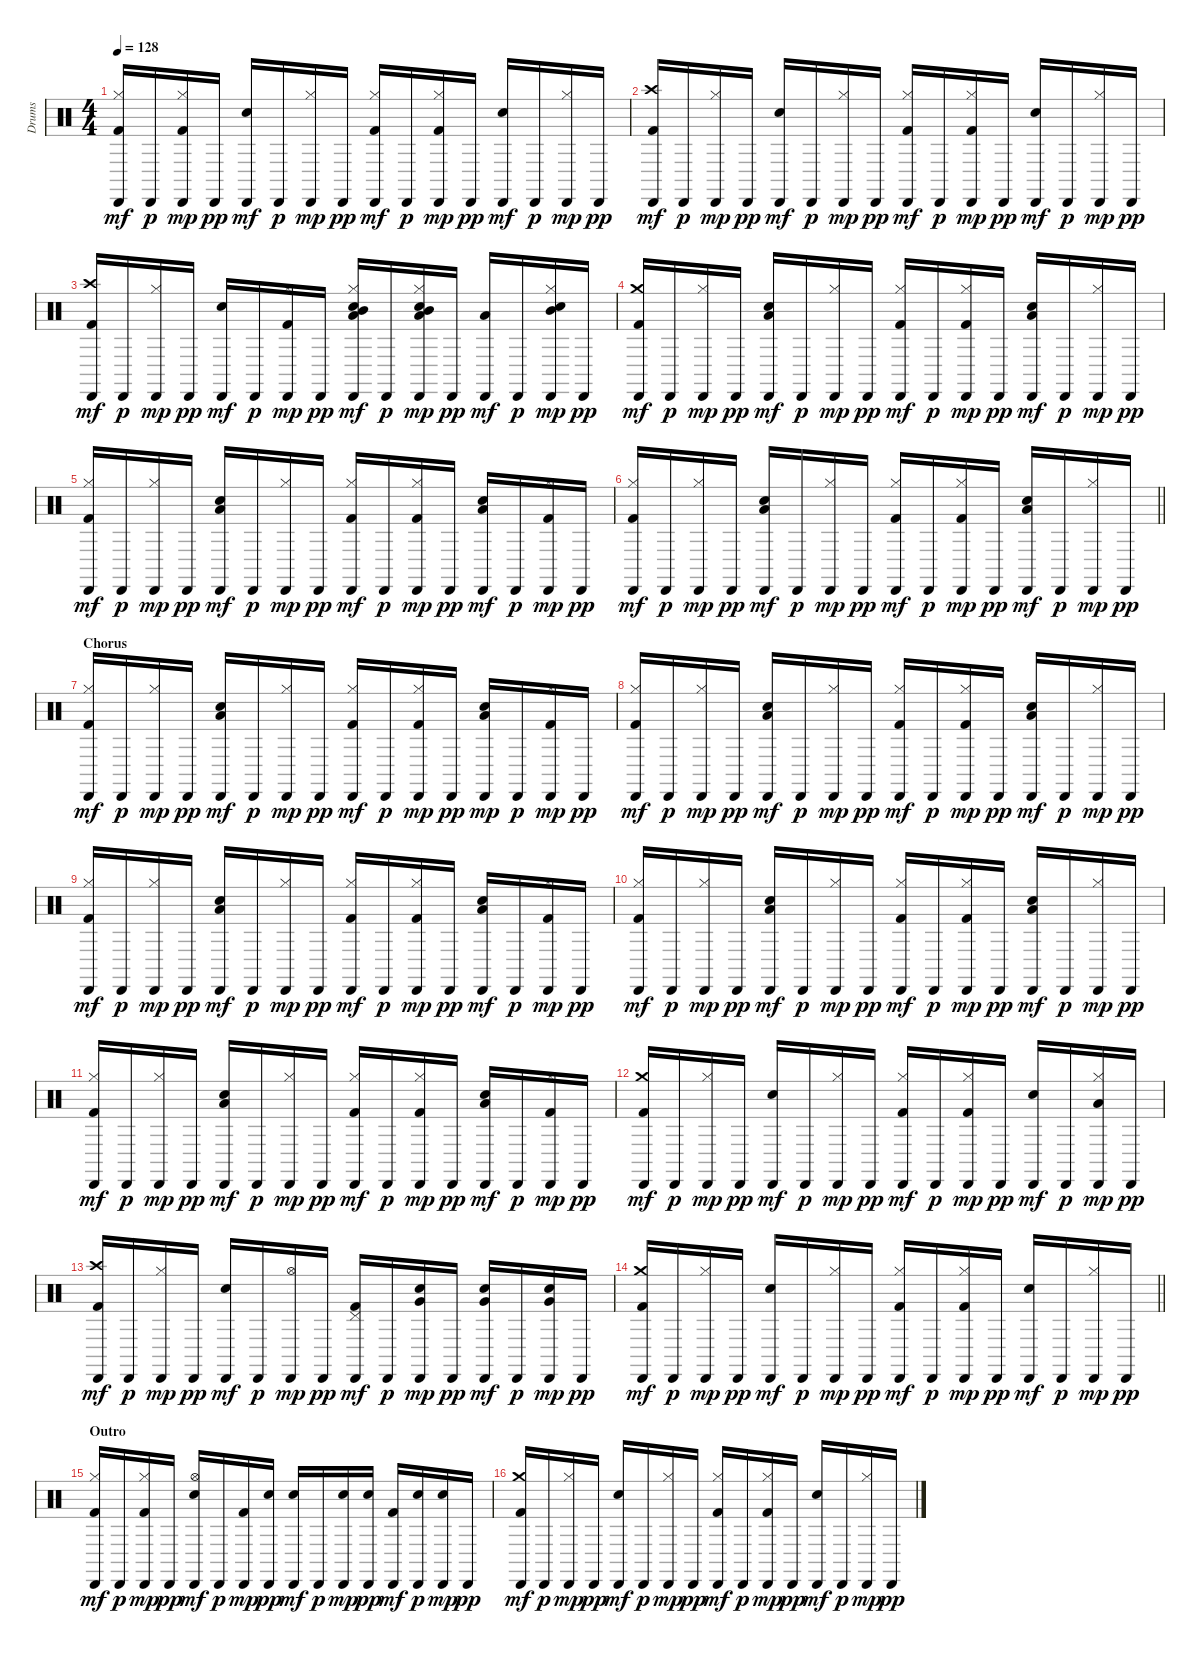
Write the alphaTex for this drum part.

\track ("Drums" "Drums") {instrument percussion}
\staff {score}
\articulation defaults
\ts (4 4)
\tempo 128
\clef neutral
\ks c
("Kick (hit) 2" "Hi-Hat (closed)" "Cabasa (hit)").16{dy mf} "Cabasa (hit)".16{dy p} ("Kick (hit) 2" "Hi-Hat (closed)" "Cabasa (hit)").16{dy mp} "Cabasa (hit)".16{dy pp} ("Electric Snare (hit)" "Cabasa (hit)").16{dy mf} "Cabasa (hit)".16{dy p} ("Hi-Hat (closed)" "Cabasa (hit)").16{dy mp} "Cabasa (hit)".16{dy pp} ("Kick (hit) 2" "Hi-Hat (closed)" "Cabasa (hit)").16{dy mf} "Cabasa (hit)".16{dy p} ("Kick (hit) 2" "Hi-Hat (closed)" "Cabasa (hit)").16{dy mp} "Cabasa (hit)".16{dy pp} ("Electric Snare (hit)" "Cabasa (hit)").16{dy mf} "Cabasa (hit)".16{dy p} ("Hi-Hat (closed)" "Cabasa (hit)").16{dy mp} "Cabasa (hit)".16{dy pp} |
("Kick (hit) 2" "Crash high (hit)" "Cabasa (hit)").16{dy mf} "Cabasa (hit)".16{dy p} ("Hi-Hat (closed)" "Cabasa (hit)").16{dy mp} "Cabasa (hit)".16{dy pp} ("Electric Snare (hit)" "Cabasa (hit)").16{dy mf} "Cabasa (hit)".16{dy p} ("Hi-Hat (closed)" "Cabasa (hit)").16{dy mp} "Cabasa (hit)".16{dy pp} ("Kick (hit) 2" "Hi-Hat (closed)" "Cabasa (hit)").16{dy mf} "Cabasa (hit)".16{dy p} ("Kick (hit) 2" "Hi-Hat (closed)" "Cabasa (hit)").16{dy mp} "Cabasa (hit)".16{dy pp} ("Electric Snare (hit)" "Cabasa (hit)").16{dy mf} "Cabasa (hit)".16{dy p} ("Hi-Hat (closed)" "Cabasa (hit)").16{dy mp} "Cabasa (hit)".16{dy pp} |
("Kick (hit) 2" "Crash high (hit)" "Cabasa (hit)").16{dy mf} "Cabasa (hit)".16{dy p} ("Hi-Hat (closed)" "Cabasa (hit)").16{dy mp} "Cabasa (hit)".16{dy pp} ("Electric Snare (hit)" "Cabasa (hit)").16{dy mf} "Cabasa (hit)".16{dy p} ("Kick (hit) 2" "Hi-Hat (closed)" "Cabasa (hit)").16{dy mp} "Cabasa (hit)".16{dy pp} ("Electric Snare (hit)" "Hi-Hat (closed)" "Low Tom (hit)" "Mid Tom (hit)" "Cabasa (hit)").16{dy mf} "Cabasa (hit)".16{dy p} ("Electric Snare (hit)" "Hi-Hat (closed)" "Low Tom (hit)" "Mid Tom (hit)" "Cabasa (hit)").16{dy mp} "Cabasa (hit)".16{dy pp} ("Low Tom (hit)" "Cabasa (hit)").16{dy mf} "Cabasa (hit)".16{dy p} ("Electric Snare (hit)" "Hi-Hat (closed)" "Mid Tom (hit)" "Cabasa (hit)").16{dy mp} "Cabasa (hit)".16{dy pp} |
("Kick (hit) 2" "Crash medium (hit)" "Cabasa (hit)").16{dy mf} "Cabasa (hit)".16{dy p} ("Hi-Hat (closed)" "Cabasa (hit)").16{dy mp} "Cabasa (hit)".16{dy pp} ("Electric Snare (hit)" "Low Tom (hit)" "Cabasa (hit)").16{dy mf} "Cabasa (hit)".16{dy p} ("Hi-Hat (closed)" "Cabasa (hit)").16{dy mp} "Cabasa (hit)".16{dy pp} ("Kick (hit) 2" "Hi-Hat (closed)" "Cabasa (hit)").16{dy mf} "Cabasa (hit)".16{dy p} ("Kick (hit) 2" "Hi-Hat (closed)" "Cabasa (hit)").16{dy mp} "Cabasa (hit)".16{dy pp} ("Electric Snare (hit)" "Low Tom (hit)" "Cabasa (hit)").16{dy mf} "Cabasa (hit)".16{dy p} ("Hi-Hat (closed)" "Cabasa (hit)").16{dy mp} "Cabasa (hit)".16{dy pp} |
("Kick (hit) 2" "Hi-Hat (closed)" "Cabasa (hit)").16{dy mf} "Cabasa (hit)".16{dy p} ("Hi-Hat (closed)" "Cabasa (hit)").16{dy mp} "Cabasa (hit)".16{dy pp} ("Electric Snare (hit)" "Low Tom (hit)" "Cabasa (hit)").16{dy mf} "Cabasa (hit)".16{dy p} ("Hi-Hat (closed)" "Cabasa (hit)").16{dy mp} "Cabasa (hit)".16{dy pp} ("Kick (hit) 2" "Hi-Hat (closed)" "Cabasa (hit)").16{dy mf} "Cabasa (hit)".16{dy p} ("Kick (hit) 2" "Hi-Hat (closed)" "Cabasa (hit)").16{dy mp} "Cabasa (hit)".16{dy pp} ("Electric Snare (hit)" "Low Tom (hit)" "Cabasa (hit)").16{dy mf} "Cabasa (hit)".16{dy p} ("Kick (hit) 2" "Hi-Hat (closed)" "Cabasa (hit)").16{dy mp} "Cabasa (hit)".16{dy pp} |
\barLineRight lightlight
("Kick (hit) 2" "Hi-Hat (closed)" "Cabasa (hit)").16{dy mf} "Cabasa (hit)".16{dy p} ("Hi-Hat (closed)" "Cabasa (hit)").16{dy mp} "Cabasa (hit)".16{dy pp} ("Electric Snare (hit)" "Low Tom (hit)" "Cabasa (hit)").16{dy mf} "Cabasa (hit)".16{dy p} ("Hi-Hat (closed)" "Cabasa (hit)").16{dy mp} "Cabasa (hit)".16{dy pp} ("Kick (hit) 2" "Hi-Hat (closed)" "Cabasa (hit)").16{dy mf} "Cabasa (hit)".16{dy p} ("Kick (hit) 2" "Hi-Hat (closed)" "Cabasa (hit)").16{dy mp} "Cabasa (hit)".16{dy pp} ("Electric Snare (hit)" "Low Tom (hit)" "Cabasa (hit)").16{dy mf} "Cabasa (hit)".16{dy p} ("Hi-Hat (closed)" "Cabasa (hit)").16{dy mp} "Cabasa (hit)".16{dy pp} |
\section ("" "Chorus")
("Kick (hit) 2" "Hi-Hat (closed)" "Cabasa (hit)").16{dy mf} "Cabasa (hit)".16{dy p} ("Hi-Hat (closed)" "Cabasa (hit)").16{dy mp} "Cabasa (hit)".16{dy pp} ("Electric Snare (hit)" "Low Tom (hit)" "Cabasa (hit)").16{dy mf} "Cabasa (hit)".16{dy p} ("Hi-Hat (closed)" "Cabasa (hit)").16{dy mp} "Cabasa (hit)".16{dy pp} ("Kick (hit) 2" "Hi-Hat (closed)" "Cabasa (hit)").16{dy mf} "Cabasa (hit)".16{dy p} ("Kick (hit) 2" "Hi-Hat (closed)" "Cabasa (hit)").16{dy mp} "Cabasa (hit)".16{dy pp} ("Electric Snare (hit)" "Low Tom (hit)" "Cabasa (hit)").16{dy mp} "Cabasa (hit)".16{dy p} ("Kick (hit) 2" "Hi-Hat (closed)" "Cabasa (hit)").16{dy mp} "Cabasa (hit)".16{dy pp} |
("Kick (hit) 2" "Hi-Hat (closed)" "Cabasa (hit)").16{dy mf} "Cabasa (hit)".16{dy p} ("Hi-Hat (closed)" "Cabasa (hit)").16{dy mp} "Cabasa (hit)".16{dy pp} ("Electric Snare (hit)" "Low Tom (hit)" "Cabasa (hit)").16{dy mf} "Cabasa (hit)".16{dy p} ("Hi-Hat (closed)" "Cabasa (hit)").16{dy mp} "Cabasa (hit)".16{dy pp} ("Kick (hit) 2" "Hi-Hat (closed)" "Cabasa (hit)").16{dy mf} "Cabasa (hit)".16{dy p} ("Kick (hit) 2" "Hi-Hat (closed)" "Cabasa (hit)").16{dy mp} "Cabasa (hit)".16{dy pp} ("Electric Snare (hit)" "Low Tom (hit)" "Cabasa (hit)").16{dy mf} "Cabasa (hit)".16{dy p} ("Hi-Hat (closed)" "Cabasa (hit)").16{dy mp} "Cabasa (hit)".16{dy pp} |
("Kick (hit) 2" "Hi-Hat (closed)" "Cabasa (hit)").16{dy mf} "Cabasa (hit)".16{dy p} ("Hi-Hat (closed)" "Cabasa (hit)").16{dy mp} "Cabasa (hit)".16{dy pp} ("Electric Snare (hit)" "Low Tom (hit)" "Cabasa (hit)").16{dy mf} "Cabasa (hit)".16{dy p} ("Hi-Hat (closed)" "Cabasa (hit)").16{dy mp} "Cabasa (hit)".16{dy pp} ("Kick (hit) 2" "Hi-Hat (closed)" "Cabasa (hit)").16{dy mf} "Cabasa (hit)".16{dy p} ("Kick (hit) 2" "Hi-Hat (closed)" "Cabasa (hit)").16{dy mp} "Cabasa (hit)".16{dy pp} ("Electric Snare (hit)" "Low Tom (hit)" "Cabasa (hit)").16{dy mf} "Cabasa (hit)".16{dy p} ("Kick (hit) 2" "Hi-Hat (closed)" "Cabasa (hit)").16{dy mp} "Cabasa (hit)".16{dy pp} |
("Kick (hit) 2" "Hi-Hat (closed)" "Cabasa (hit)").16{dy mf} "Cabasa (hit)".16{dy p} ("Hi-Hat (closed)" "Cabasa (hit)").16{dy mp} "Cabasa (hit)".16{dy pp} ("Electric Snare (hit)" "Low Tom (hit)" "Cabasa (hit)").16{dy mf} "Cabasa (hit)".16{dy p} ("Hi-Hat (closed)" "Cabasa (hit)").16{dy mp} "Cabasa (hit)".16{dy pp} ("Kick (hit) 2" "Hi-Hat (closed)" "Cabasa (hit)").16{dy mf} "Cabasa (hit)".16{dy p} ("Kick (hit) 2" "Hi-Hat (closed)" "Cabasa (hit)").16{dy mp} "Cabasa (hit)".16{dy pp} ("Electric Snare (hit)" "Low Tom (hit)" "Cabasa (hit)").16{dy mf} "Cabasa (hit)".16{dy p} ("Hi-Hat (closed)" "Cabasa (hit)").16{dy mp} "Cabasa (hit)".16{dy pp} |
("Kick (hit) 2" "Hi-Hat (closed)" "Cabasa (hit)").16{dy mf} "Cabasa (hit)".16{dy p} ("Hi-Hat (closed)" "Cabasa (hit)").16{dy mp} "Cabasa (hit)".16{dy pp} ("Electric Snare (hit)" "Low Tom (hit)" "Cabasa (hit)").16{dy mf} "Cabasa (hit)".16{dy p} ("Hi-Hat (closed)" "Cabasa (hit)").16{dy mp} "Cabasa (hit)".16{dy pp} ("Kick (hit) 2" "Hi-Hat (closed)" "Cabasa (hit)").16{dy mf} "Cabasa (hit)".16{dy p} ("Kick (hit) 2" "Hi-Hat (closed)" "Cabasa (hit)").16{dy mp} "Cabasa (hit)".16{dy pp} ("Electric Snare (hit)" "Low Tom (hit)" "Cabasa (hit)").16{dy mf} "Cabasa (hit)".16{dy p} ("Kick (hit) 2" "Hi-Hat (closed)" "Cabasa (hit)").16{dy mp} "Cabasa (hit)".16{dy pp} |
("Kick (hit) 2" "Crash medium (hit)" "Cabasa (hit)").16{dy mf} "Cabasa (hit)".16{dy p} ("Hi-Hat (closed)" "Cabasa (hit)").16{dy mp} "Cabasa (hit)".16{dy pp} ("Electric Snare (hit)" "Cabasa (hit)").16{dy mf} "Cabasa (hit)".16{dy p} ("Hi-Hat (closed)" "Cabasa (hit)").16{dy mp} "Cabasa (hit)".16{dy pp} ("Kick (hit) 2" "Hi-Hat (closed)" "Cabasa (hit)").16{dy mf} "Cabasa (hit)".16{dy p} ("Kick (hit) 2" "Hi-Hat (closed)" "Cabasa (hit)").16{dy mp} "Cabasa (hit)".16{dy pp} ("Electric Snare (hit)" "Cabasa (hit)").16{dy mf} "Cabasa (hit)".16{dy p} ("Hi-Hat (closed)" "Low Tom (hit)" "Cabasa (hit)").16{dy mp} "Cabasa (hit)".16{dy pp} |
("Kick (hit) 2" "Crash high (hit)" "Cabasa (hit)").16{dy mf} "Cabasa (hit)".16{dy p} ("Hi-Hat (closed)" "Cabasa (hit)").16{dy mp} "Cabasa (hit)".16{dy pp} ("Electric Snare (hit)" "Cabasa (hit)").16{dy mf} "Cabasa (hit)".16{dy p} ("Hi-Hat (open)" "Cabasa (hit)").16{dy mp} "Cabasa (hit)".16{dy pp} ("Kick (hit) 2" "Pedal Hi-Hat (hit)" "Cabasa (hit)").16{dy mf} "Cabasa (hit)".16{dy p} ("Electric Snare (hit)" "Very Low Tom (hit)" "Cabasa (hit)").16{dy mp} "Cabasa (hit)".16{dy pp} ("Electric Snare (hit)" "Very Low Tom (hit)" "Cabasa (hit)").16{dy mf} "Cabasa (hit)".16{dy p} ("Electric Snare (hit)" "Very Low Tom (hit)" "Cabasa (hit)").16{dy mp} "Cabasa (hit)".16{dy pp} |
\barLineRight lightlight
("Kick (hit) 2" "Crash medium (hit)" "Cabasa (hit)").16{dy mf} "Cabasa (hit)".16{dy p} ("Hi-Hat (closed)" "Cabasa (hit)").16{dy mp} "Cabasa (hit)".16{dy pp} ("Electric Snare (hit)" "Cabasa (hit)").16{dy mf} "Cabasa (hit)".16{dy p} ("Hi-Hat (closed)" "Cabasa (hit)").16{dy mp} "Cabasa (hit)".16{dy pp} ("Kick (hit) 2" "Hi-Hat (closed)" "Cabasa (hit)").16{dy mf} "Cabasa (hit)".16{dy p} ("Kick (hit) 2" "Hi-Hat (closed)" "Cabasa (hit)").16{dy mp} "Cabasa (hit)".16{dy pp} ("Electric Snare (hit)" "Cabasa (hit)").16{dy mf} "Cabasa (hit)".16{dy p} ("Hi-Hat (closed)" "Cabasa (hit)").16{dy mp} "Cabasa (hit)".16{dy pp} |
\section ("" "Outro")
("Kick (hit) 2" "Hi-Hat (closed)" "Cabasa (hit)").16{dy mf} "Cabasa (hit)".16{dy p} ("Kick (hit) 2" "Hi-Hat (closed)" "Cabasa (hit)").16{dy mp} "Cabasa (hit)".16{dy pp} ("Electric Snare (hit)" "Hi-Hat (open)" "Cabasa (hit)").16{dy mf} "Cabasa (hit)".16{dy p} ("Kick (hit) 2" "Cabasa (hit)").16{dy mp} ("Electric Snare (hit)" "Cabasa (hit)").16{dy pp} ("Electric Snare (hit)" "Cabasa (hit)").16{dy mf} "Cabasa (hit)".16{dy p} ("Electric Snare (hit)" "Cabasa (hit)").16{dy mp} ("Electric Snare (hit)" "Cabasa (hit)").16{dy pp} ("Kick (hit) 2" "Cabasa (hit)").16{dy mf} ("Electric Snare (hit)" "Cabasa (hit)").16{dy p} ("Electric Snare (hit)" "Cabasa (hit)").16{dy mp} "Cabasa (hit)".16{dy pp} |
("Kick (hit) 2" "Crash medium (hit)" "Cabasa (hit)").16{dy mf} "Cabasa (hit)".16{dy p} ("Hi-Hat (closed)" "Cabasa (hit)").16{dy mp} "Cabasa (hit)".16{dy pp} ("Electric Snare (hit)" "Cabasa (hit)").16{dy mf} "Cabasa (hit)".16{dy p} ("Hi-Hat (closed)" "Cabasa (hit)").16{dy mp} "Cabasa (hit)".16{dy pp} ("Kick (hit) 2" "Hi-Hat (closed)" "Cabasa (hit)").16{dy mf} "Cabasa (hit)".16{dy p} ("Kick (hit) 2" "Hi-Hat (closed)" "Cabasa (hit)").16{dy mp} "Cabasa (hit)".16{dy pp} ("Electric Snare (hit)" "Cabasa (hit)").16{dy mf} "Cabasa (hit)".16{dy p} ("Hi-Hat (closed)" "Cabasa (hit)").16{dy mp} "Cabasa (hit)".16{dy pp}
